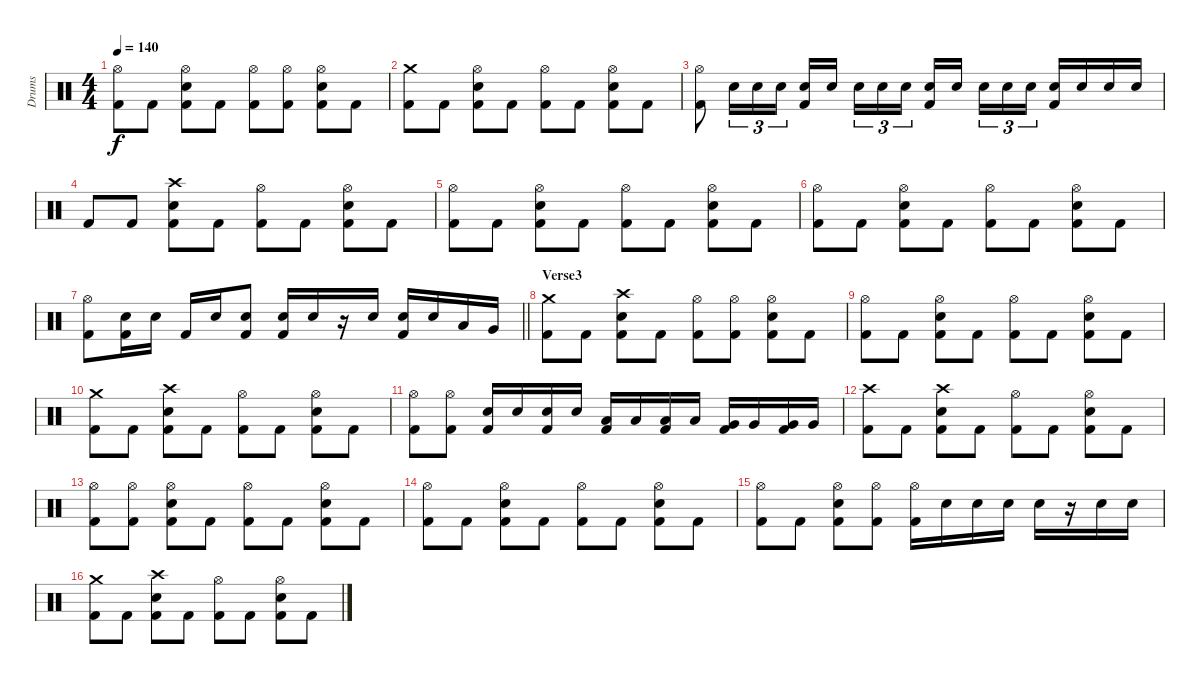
\track ("Drums" "Drums") {instrument percussion}
\staff {score}
\articulation defaults
\ts (4 4)
\tempo 140
\clef neutral
\ks c
("Hi-Hat (open)" "Kick (hit) 2").8{dy f} "Kick (hit) 2".8 ("Hi-Hat (open)" "Snare (hit) 2" "Kick (hit) 2").8 "Kick (hit) 2".8 ("Hi-Hat (open)" "Kick (hit) 2").8 ("Hi-Hat (open)" "Kick (hit) 2").8 ("Hi-Hat (open)" "Snare (hit) 2" "Kick (hit) 2").8 "Kick (hit) 2".8 |
("Crash medium (hit)" "Kick (hit) 2").8 "Kick (hit) 2".8 ("Hi-Hat (open)" "Snare (hit) 2" "Kick (hit) 2").8 "Kick (hit) 2".8 ("Hi-Hat (open)" "Kick (hit) 2").8 "Kick (hit) 2".8 ("Hi-Hat (open)" "Snare (hit) 2" "Kick (hit) 2").8 "Kick (hit) 2".8 |
("Hi-Hat (open)" "Kick (hit) 2").8 "Snare (hit) 2".16{tu (3 2)} "Snare (hit) 2".16{tu (3 2)} "Snare (hit) 2".16{tu (3 2)} ("Snare (hit) 2" "Kick (hit) 2").16 "Snare (hit) 2".16{beam splitsecondary} "Snare (hit) 2".16{tu (3 2)} "Snare (hit) 2".16{tu (3 2)} "Snare (hit) 2".16{tu (3 2)} ("Snare (hit) 2" "Kick (hit) 2").16 "Snare (hit) 2".16{beam splitsecondary} "Snare (hit) 2".16{tu (3 2)} "Snare (hit) 2".16{tu (3 2)} "Snare (hit) 2".16{tu (3 2)} ("Snare (hit) 2" "Kick (hit) 2").16 "Snare (hit) 2".16 "Snare (hit) 2".16 "Snare (hit) 2".16 |
"Kick (hit) 2".8 "Kick (hit) 2".8 ("Crash high (hit)" "Snare (hit) 2" "Kick (hit) 2").8 "Kick (hit) 2".8 ("Hi-Hat (open)" "Kick (hit) 2").8 "Kick (hit) 2".8 ("Hi-Hat (open)" "Snare (hit) 2" "Kick (hit) 2").8 "Kick (hit) 2".8 |
("Hi-Hat (open)" "Kick (hit) 2").8 "Kick (hit) 2".8 ("Hi-Hat (open)" "Snare (hit) 2" "Kick (hit) 2").8 "Kick (hit) 2".8 ("Hi-Hat (open)" "Kick (hit) 2").8 "Kick (hit) 2".8 ("Hi-Hat (open)" "Snare (hit) 2" "Kick (hit) 2").8 "Kick (hit) 2".8 |
("Hi-Hat (open)" "Kick (hit) 2").8 "Kick (hit) 2".8 ("Hi-Hat (open)" "Snare (hit) 2" "Kick (hit) 2").8 "Kick (hit) 2".8 ("Hi-Hat (open)" "Kick (hit) 2").8 "Kick (hit) 2".8 ("Hi-Hat (open)" "Snare (hit) 2" "Kick (hit) 2").8 "Kick (hit) 2".8 |
\barLineRight lightlight
("Hi-Hat (open)" "Kick (hit) 2").8 ("Snare (hit) 2" "Kick (hit) 2").16 "Snare (hit) 2".16 "Kick (hit) 2".16 "Snare (hit) 2".16 ("Snare (hit) 2" "Kick (hit) 2").8 ("Snare (hit) 2" "Kick (hit) 2").16 "Snare (hit) 2".16 r.16 "Snare (hit) 2".16 ("Snare (hit) 2" "Kick (hit) 2").16 "Snare (hit) 2".16 "Low Tom (hit)".16 "Very Low Tom (hit)".16 |
\section ("" "Verse3")
("Crash medium (hit)" "Kick (hit) 2").8 "Kick (hit) 2".8 ("Crash high (hit)" "Snare (hit) 2" "Kick (hit) 2").8 "Kick (hit) 2".8 ("Hi-Hat (open)" "Kick (hit) 2").8 ("Hi-Hat (open)" "Kick (hit) 2").8 ("Hi-Hat (open)" "Snare (hit) 2" "Kick (hit) 2").8 "Kick (hit) 2".8 |
("Hi-Hat (open)" "Kick (hit) 2").8 "Kick (hit) 2".8 ("Hi-Hat (open)" "Snare (hit) 2" "Kick (hit) 2").8 "Kick (hit) 2".8 ("Hi-Hat (open)" "Kick (hit) 2").8 "Kick (hit) 2".8 ("Hi-Hat (open)" "Snare (hit) 2" "Kick (hit) 2").8 "Kick (hit) 2".8 |
("Crash medium (hit)" "Kick (hit) 2").8 "Kick (hit) 2".8 ("Crash high (hit)" "Snare (hit) 2" "Kick (hit) 2").8 "Kick (hit) 2".8 ("Hi-Hat (open)" "Kick (hit) 2").8 "Kick (hit) 2".8 ("Hi-Hat (open)" "Snare (hit) 2" "Kick (hit) 2").8 "Kick (hit) 2".8 |
("Hi-Hat (open)" "Kick (hit) 2").8 ("Hi-Hat (open)" "Kick (hit) 2").8 ("Snare (hit) 2" "Kick (hit) 2").16 "Snare (hit) 2".16 ("Snare (hit) 2" "Kick (hit) 2").16 "Snare (hit) 2".16 ("Low Tom (hit)" "Kick (hit) 2").16 "Low Tom (hit)".16 ("Low Tom (hit)" "Kick (hit) 2").16 "Low Tom (hit)".16 ("Very Low Tom (hit)" "Kick (hit) 2").16 "Very Low Tom (hit)".16 ("Very Low Tom (hit)" "Kick (hit) 2").16 "Very Low Tom (hit)".16 |
("Crash high (hit)" "Kick (hit) 2").8 "Kick (hit) 2".8 ("Crash high (hit)" "Snare (hit) 2" "Kick (hit) 2").8 "Kick (hit) 2".8 ("Hi-Hat (open)" "Kick (hit) 2").8 "Kick (hit) 2".8 ("Hi-Hat (open)" "Snare (hit) 2" "Kick (hit) 2").8 "Kick (hit) 2".8 |
("Hi-Hat (open)" "Kick (hit) 2").8 ("Hi-Hat (open)" "Kick (hit) 2").8 ("Hi-Hat (open)" "Snare (hit) 2" "Kick (hit) 2").8 "Kick (hit) 2".8 ("Hi-Hat (open)" "Kick (hit) 2").8 "Kick (hit) 2".8 ("Hi-Hat (open)" "Snare (hit) 2" "Kick (hit) 2").8 "Kick (hit) 2".8 |
("Hi-Hat (open)" "Kick (hit) 2").8 "Kick (hit) 2".8 ("Hi-Hat (open)" "Snare (hit) 2" "Kick (hit) 2").8 "Kick (hit) 2".8 ("Hi-Hat (open)" "Kick (hit) 2").8 "Kick (hit) 2".8 ("Hi-Hat (open)" "Snare (hit) 2" "Kick (hit) 2").8 "Kick (hit) 2".8 |
("Hi-Hat (open)" "Kick (hit) 2").8 "Kick (hit) 2".8 ("Hi-Hat (open)" "Snare (hit) 2" "Kick (hit) 2").8 ("Hi-Hat (open)" "Kick (hit) 2").8 ("Hi-Hat (open)" "Kick (hit) 2").16 "Snare (hit) 2".16 "Snare (hit) 2".16 "Snare (hit) 2".16 "Snare (hit) 2".16 r.16 "Snare (hit) 2".16 "Snare (hit) 2".16 |
("Crash medium (hit)" "Kick (hit) 2").8 "Kick (hit) 2".8 ("Crash high (hit)" "Snare (hit) 2" "Kick (hit) 2").8 "Kick (hit) 2".8 ("Hi-Hat (open)" "Kick (hit) 2").8 "Kick (hit) 2".8 ("Hi-Hat (open)" "Snare (hit) 2" "Kick (hit) 2").8 "Kick (hit) 2".8
